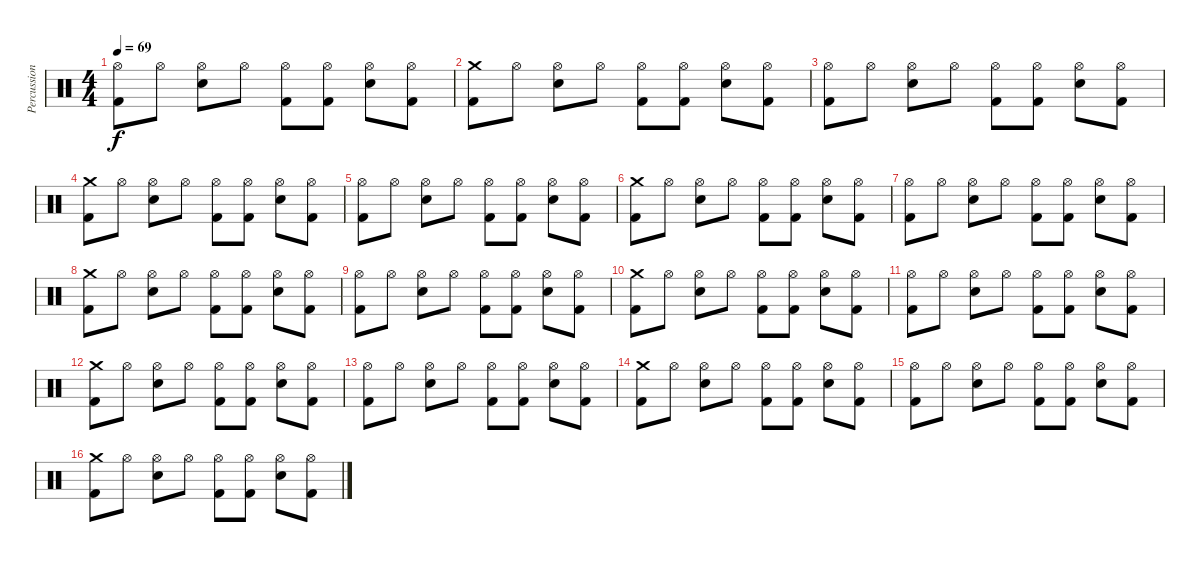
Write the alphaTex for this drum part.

\track ("Percussion" "Percussion") {instrument percussion}
\staff {score}
\articulation defaults
\ts (4 4)
\tempo 69
\clef neutral
\ks c
("Hi-Hat (open)" "Kick (hit) 2").8{dy f} "Hi-Hat (open)".8 ("Hi-Hat (open)" "Electric Snare (hit)").8 "Hi-Hat (open)".8 ("Hi-Hat (open)" "Kick (hit) 2").8 ("Hi-Hat (open)" "Kick (hit) 2").8 ("Hi-Hat (open)" "Electric Snare (hit)").8 ("Hi-Hat (open)" "Kick (hit) 2").8 |
("Crash medium (hit)" "Kick (hit) 2").8 "Hi-Hat (open)".8 ("Hi-Hat (open)" "Electric Snare (hit)").8 "Hi-Hat (open)".8 ("Hi-Hat (open)" "Kick (hit) 2").8 ("Hi-Hat (open)" "Kick (hit) 2").8 ("Hi-Hat (open)" "Electric Snare (hit)").8 ("Hi-Hat (open)" "Kick (hit) 2").8 |
("Hi-Hat (open)" "Kick (hit) 2").8 "Hi-Hat (open)".8 ("Hi-Hat (open)" "Electric Snare (hit)").8 "Hi-Hat (open)".8 ("Hi-Hat (open)" "Kick (hit) 2").8 ("Hi-Hat (open)" "Kick (hit) 2").8 ("Hi-Hat (open)" "Electric Snare (hit)").8 ("Hi-Hat (open)" "Kick (hit) 2").8 |
("Crash medium (hit)" "Kick (hit) 2").8 "Hi-Hat (open)".8 ("Hi-Hat (open)" "Electric Snare (hit)").8 "Hi-Hat (open)".8 ("Hi-Hat (open)" "Kick (hit) 2").8 ("Hi-Hat (open)" "Kick (hit) 2").8 ("Hi-Hat (open)" "Electric Snare (hit)").8 ("Hi-Hat (open)" "Kick (hit) 2").8 |
("Hi-Hat (open)" "Kick (hit) 2").8 "Hi-Hat (open)".8 ("Hi-Hat (open)" "Electric Snare (hit)").8 "Hi-Hat (open)".8 ("Hi-Hat (open)" "Kick (hit) 2").8 ("Hi-Hat (open)" "Kick (hit) 2").8 ("Hi-Hat (open)" "Electric Snare (hit)").8 ("Hi-Hat (open)" "Kick (hit) 2").8 |
("Crash medium (hit)" "Kick (hit) 2").8 "Hi-Hat (open)".8 ("Hi-Hat (open)" "Electric Snare (hit)").8 "Hi-Hat (open)".8 ("Hi-Hat (open)" "Kick (hit) 2").8 ("Hi-Hat (open)" "Kick (hit) 2").8 ("Hi-Hat (open)" "Electric Snare (hit)").8 ("Hi-Hat (open)" "Kick (hit) 2").8 |
("Hi-Hat (open)" "Kick (hit) 2").8 "Hi-Hat (open)".8 ("Hi-Hat (open)" "Electric Snare (hit)").8 "Hi-Hat (open)".8 ("Hi-Hat (open)" "Kick (hit) 2").8 ("Hi-Hat (open)" "Kick (hit) 2").8 ("Hi-Hat (open)" "Electric Snare (hit)").8 ("Hi-Hat (open)" "Kick (hit) 2").8 |
("Crash medium (hit)" "Kick (hit) 2").8 "Hi-Hat (open)".8 ("Hi-Hat (open)" "Electric Snare (hit)").8 "Hi-Hat (open)".8 ("Hi-Hat (open)" "Kick (hit) 2").8 ("Hi-Hat (open)" "Kick (hit) 2").8 ("Hi-Hat (open)" "Electric Snare (hit)").8 ("Hi-Hat (open)" "Kick (hit) 2").8 |
("Hi-Hat (open)" "Kick (hit) 2").8 "Hi-Hat (open)".8 ("Hi-Hat (open)" "Electric Snare (hit)").8 "Hi-Hat (open)".8 ("Hi-Hat (open)" "Kick (hit) 2").8 ("Hi-Hat (open)" "Kick (hit) 2").8 ("Hi-Hat (open)" "Electric Snare (hit)").8 ("Hi-Hat (open)" "Kick (hit) 2").8 |
("Crash medium (hit)" "Kick (hit) 2").8 "Hi-Hat (open)".8 ("Hi-Hat (open)" "Electric Snare (hit)").8 "Hi-Hat (open)".8 ("Hi-Hat (open)" "Kick (hit) 2").8 ("Hi-Hat (open)" "Kick (hit) 2").8 ("Hi-Hat (open)" "Electric Snare (hit)").8 ("Hi-Hat (open)" "Kick (hit) 2").8 |
("Hi-Hat (open)" "Kick (hit) 2").8 "Hi-Hat (open)".8 ("Hi-Hat (open)" "Electric Snare (hit)").8 "Hi-Hat (open)".8 ("Hi-Hat (open)" "Kick (hit) 2").8 ("Hi-Hat (open)" "Kick (hit) 2").8 ("Hi-Hat (open)" "Electric Snare (hit)").8 ("Hi-Hat (open)" "Kick (hit) 2").8 |
("Crash medium (hit)" "Kick (hit) 2").8 "Hi-Hat (open)".8 ("Hi-Hat (open)" "Electric Snare (hit)").8 "Hi-Hat (open)".8 ("Hi-Hat (open)" "Kick (hit) 2").8 ("Hi-Hat (open)" "Kick (hit) 2").8 ("Hi-Hat (open)" "Electric Snare (hit)").8 ("Hi-Hat (open)" "Kick (hit) 2").8 |
("Hi-Hat (open)" "Kick (hit) 2").8 "Hi-Hat (open)".8 ("Hi-Hat (open)" "Electric Snare (hit)").8 "Hi-Hat (open)".8 ("Hi-Hat (open)" "Kick (hit) 2").8 ("Hi-Hat (open)" "Kick (hit) 2").8 ("Hi-Hat (open)" "Electric Snare (hit)").8 ("Hi-Hat (open)" "Kick (hit) 2").8 |
("Crash medium (hit)" "Kick (hit) 2").8 "Hi-Hat (open)".8 ("Hi-Hat (open)" "Electric Snare (hit)").8 "Hi-Hat (open)".8 ("Hi-Hat (open)" "Kick (hit) 2").8 ("Hi-Hat (open)" "Kick (hit) 2").8 ("Hi-Hat (open)" "Electric Snare (hit)").8 ("Hi-Hat (open)" "Kick (hit) 2").8 |
("Hi-Hat (open)" "Kick (hit) 2").8 "Hi-Hat (open)".8 ("Hi-Hat (open)" "Electric Snare (hit)").8 "Hi-Hat (open)".8 ("Hi-Hat (open)" "Kick (hit) 2").8 ("Hi-Hat (open)" "Kick (hit) 2").8 ("Hi-Hat (open)" "Electric Snare (hit)").8 ("Hi-Hat (open)" "Kick (hit) 2").8 |
("Crash medium (hit)" "Kick (hit) 2").8 "Hi-Hat (open)".8 ("Hi-Hat (open)" "Electric Snare (hit)").8 "Hi-Hat (open)".8 ("Hi-Hat (open)" "Kick (hit) 2").8 ("Hi-Hat (open)" "Kick (hit) 2").8 ("Hi-Hat (open)" "Electric Snare (hit)").8 ("Hi-Hat (open)" "Kick (hit) 2").8
